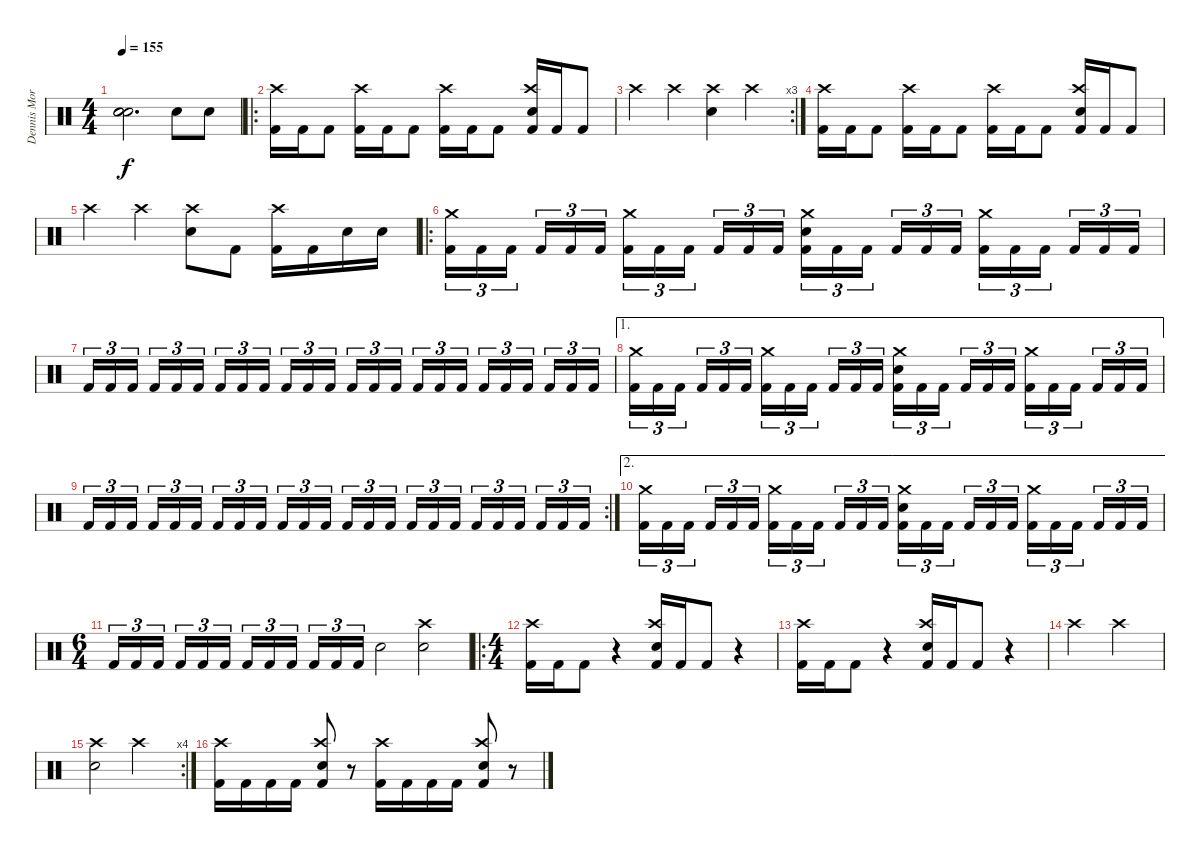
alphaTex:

\track ("Dennis Morgan" "Dennis Mor") {instrument percussion}
\staff {score}
\articulation defaults
\ts (4 4)
\tempo 155
\clef neutral
\ks c
("Snare (hit)"{t} "Snare (hit)"{t} "Snare (hit)"{t}).2{d dy f} "Electric Snare (hit)".8 "Electric Snare (hit)".8 |
\ro
("Crash high (hit)" "Kick (hit) 2").16 "Kick (hit) 2".16 "Kick (hit) 2".8 ("Crash high (hit)" "Kick (hit) 2").16 "Kick (hit) 2".16 "Kick (hit) 2".8 ("Crash high (hit)" "Kick (hit) 2").16 "Kick (hit) 2".16 "Kick (hit) 2".8 ("Crash high (hit)" "Electric Snare (hit)" "Kick (hit) 2").16 "Kick (hit) 2".16 "Kick (hit) 2".8 |
\rc 3 "Crash high (hit)".4 "Crash high (hit)".4
("Crash high (hit)" "Electric Snare (hit)").4 "Crash high (hit)".4 |
("Crash high (hit)" "Kick (hit) 2").16 "Kick (hit) 2".16 "Kick (hit) 2".8 ("Crash high (hit)" "Kick (hit) 2").16 "Kick (hit) 2".16 "Kick (hit) 2".8 ("Crash high (hit)" "Kick (hit) 2").16 "Kick (hit) 2".16 "Kick (hit) 2".8 ("Crash high (hit)" "Electric Snare (hit)" "Kick (hit) 2").16 "Kick (hit) 2".16 "Kick (hit) 2".8 |
"Crash high (hit)".4 "Crash high (hit)".4 ("Crash high (hit)" "Electric Snare (hit)").8 "Kick (hit) 2".8 ("Crash high (hit)" "Kick (hit) 2").16 "Kick (hit) 2".16 "Electric Snare (hit)".16 "Electric Snare (hit)".16 |
\ro
("Crash medium (hit)" "Kick (hit) 2").16{tu (3 2)} "Kick (hit) 2".16{tu (3 2)} "Kick (hit) 2".16{tu (3 2) beam splitsecondary} "Kick (hit) 2".16{tu (3 2)} "Kick (hit) 2".16{tu (3 2)} "Kick (hit) 2".16{tu (3 2)} ("Crash medium (hit)" "Kick (hit) 2").16{tu (3 2)} "Kick (hit) 2".16{tu (3 2)} "Kick (hit) 2".16{tu (3 2) beam splitsecondary} "Kick (hit) 2".16{tu (3 2)} "Kick (hit) 2".16{tu (3 2)} "Kick (hit) 2".16{tu (3 2)} ("Crash medium (hit)" "Electric Snare (hit)" "Kick (hit) 2").16{tu (3 2)} "Kick (hit) 2".16{tu (3 2)} "Kick (hit) 2".16{tu (3 2) beam splitsecondary} "Kick (hit) 2".16{tu (3 2)} "Kick (hit) 2".16{tu (3 2)} "Kick (hit) 2".16{tu (3 2)} ("Crash medium (hit)" "Kick (hit) 2").16{tu (3 2)} "Kick (hit) 2".16{tu (3 2)} "Kick (hit) 2".16{tu (3 2) beam splitsecondary} "Kick (hit) 2".16{tu (3 2)} "Kick (hit) 2".16{tu (3 2)} "Kick (hit) 2".16{tu (3 2)} |
"Kick (hit) 2".16{tu (3 2)} "Kick (hit) 2".16{tu (3 2)} "Kick (hit) 2".16{tu (3 2) beam splitsecondary} "Kick (hit) 2".16{tu (3 2)} "Kick (hit) 2".16{tu (3 2)} "Kick (hit) 2".16{tu (3 2)} "Kick (hit) 2".16{tu (3 2)} "Kick (hit) 2".16{tu (3 2)} "Kick (hit) 2".16{tu (3 2) beam splitsecondary} "Kick (hit) 2".16{tu (3 2)} "Kick (hit) 2".16{tu (3 2)} "Kick (hit) 2".16{tu (3 2)} "Kick (hit) 2".16{tu (3 2)} "Kick (hit) 2".16{tu (3 2)} "Kick (hit) 2".16{tu (3 2) beam splitsecondary} "Kick (hit) 2".16{tu (3 2)} "Kick (hit) 2".16{tu (3 2)} "Kick (hit) 2".16{tu (3 2)} "Kick (hit) 2".16{tu (3 2)} "Kick (hit) 2".16{tu (3 2)} "Kick (hit) 2".16{tu (3 2) beam splitsecondary} "Kick (hit) 2".16{tu (3 2)} "Kick (hit) 2".16{tu (3 2)} "Kick (hit) 2".16{tu (3 2)} |
\ae 1
("Crash medium (hit)" "Kick (hit) 2").16{tu (3 2)} "Kick (hit) 2".16{tu (3 2)} "Kick (hit) 2".16{tu (3 2) beam splitsecondary} "Kick (hit) 2".16{tu (3 2)} "Kick (hit) 2".16{tu (3 2)} "Kick (hit) 2".16{tu (3 2)} ("Crash medium (hit)" "Kick (hit) 2").16{tu (3 2)} "Kick (hit) 2".16{tu (3 2)} "Kick (hit) 2".16{tu (3 2) beam splitsecondary} "Kick (hit) 2".16{tu (3 2)} "Kick (hit) 2".16{tu (3 2)} "Kick (hit) 2".16{tu (3 2)} ("Crash medium (hit)" "Electric Snare (hit)" "Kick (hit) 2").16{tu (3 2)} "Kick (hit) 2".16{tu (3 2)} "Kick (hit) 2".16{tu (3 2) beam splitsecondary} "Kick (hit) 2".16{tu (3 2)} "Kick (hit) 2".16{tu (3 2)} "Kick (hit) 2".16{tu (3 2)} ("Crash medium (hit)" "Kick (hit) 2").16{tu (3 2)} "Kick (hit) 2".16{tu (3 2)} "Kick (hit) 2".16{tu (3 2) beam splitsecondary} "Kick (hit) 2".16{tu (3 2)} "Kick (hit) 2".16{tu (3 2)} "Kick (hit) 2".16{tu (3 2)} |
\rc 2 "Kick (hit) 2".16{tu (3 2)} "Kick (hit) 2".16{tu (3 2)} "Kick (hit) 2".16{tu (3 2) beam splitsecondary} "Kick (hit) 2".16{tu (3 2)} "Kick (hit) 2".16{tu (3 2)} "Kick (hit) 2".16{tu (3 2)} "Kick (hit) 2".16{tu (3 2)} "Kick (hit) 2".16{tu (3 2)} "Kick (hit) 2".16{tu (3 2) beam splitsecondary} "Kick (hit) 2".16{tu (3 2)} "Kick (hit) 2".16{tu (3 2)} "Kick (hit) 2".16{tu (3 2)} "Kick (hit) 2".16{tu (3 2)} "Kick (hit) 2".16{tu (3 2)} "Kick (hit) 2".16{tu (3 2) beam splitsecondary} "Kick (hit) 2".16{tu (3 2)} "Kick (hit) 2".16{tu (3 2)} "Kick (hit) 2".16{tu (3 2)} "Kick (hit) 2".16{tu (3 2)} "Kick (hit) 2".16{tu (3 2)} "Kick (hit) 2".16{tu (3 2) beam splitsecondary} "Kick (hit) 2".16{tu (3 2)} "Kick (hit) 2".16{tu (3 2)} "Kick (hit) 2".16{tu (3 2)}
|
\ae 2
("Crash medium (hit)" "Kick (hit) 2").16{tu (3 2)} "Kick (hit) 2".16{tu (3 2)} "Kick (hit) 2".16{tu (3 2) beam splitsecondary} "Kick (hit) 2".16{tu (3 2)} "Kick (hit) 2".16{tu (3 2)} "Kick (hit) 2".16{tu (3 2)} ("Crash medium (hit)" "Kick (hit) 2").16{tu (3 2)} "Kick (hit) 2".16{tu (3 2)} "Kick (hit) 2".16{tu (3 2) beam splitsecondary} "Kick (hit) 2".16{tu (3 2)} "Kick (hit) 2".16{tu (3 2)} "Kick (hit) 2".16{tu (3 2)} ("Crash medium (hit)" "Electric Snare (hit)" "Kick (hit) 2").16{tu (3 2)} "Kick (hit) 2".16{tu (3 2)} "Kick (hit) 2".16{tu (3 2) beam splitsecondary} "Kick (hit) 2".16{tu (3 2)} "Kick (hit) 2".16{tu (3 2)} "Kick (hit) 2".16{tu (3 2)} ("Crash medium (hit)" "Kick (hit) 2").16{tu (3 2)} "Kick (hit) 2".16{tu (3 2)} "Kick (hit) 2".16{tu (3 2) beam splitsecondary} "Kick (hit) 2".16{tu (3 2)} "Kick (hit) 2".16{tu (3 2)} "Kick (hit) 2".16{tu (3 2)} |
\ts (6 4)
"Kick (hit) 2".16{tu (3 2)} "Kick (hit) 2".16{tu (3 2)} "Kick (hit) 2".16{tu (3 2) beam splitsecondary} "Kick (hit) 2".16{tu (3 2)} "Kick (hit) 2".16{tu (3 2)} "Kick (hit) 2".16{tu (3 2) beam splitsecondary} "Kick (hit) 2".16{tu (3 2)} "Kick (hit) 2".16{tu (3 2)} "Kick (hit) 2".16{tu (3 2) beam splitsecondary} "Kick (hit) 2".16{tu (3 2)} "Kick (hit) 2".16{tu (3 2)} "Kick (hit) 2".16{tu (3 2)} "Electric Snare (hit)".2 ("Crash high (hit)" "Electric Snare (hit)").2 |
\ro
\ts (4 4)
("Crash high (hit)" "Kick (hit) 2").16 "Kick (hit) 2".16 "Kick (hit) 2".8 r.4 ("Crash high (hit)" "Electric Snare (hit)" "Kick (hit) 2").16 "Kick (hit) 2".16 "Kick (hit) 2".8 r.4 |
("Crash high (hit)" "Kick (hit) 2").16 "Kick (hit) 2".16 "Kick (hit) 2".8 r.4 ("Crash high (hit)" "Electric Snare (hit)" "Kick (hit) 2").16 "Kick (hit) 2".16 "Kick (hit) 2".8 r.4 |
"Crash high (hit)".2 "Crash high (hit)".2 |
\rc 4
("Crash high (hit)" "Electric Snare (hit)").2 "Crash high (hit)".2 |
("Crash high (hit)" "Kick (hit) 2").16 "Kick (hit) 2".16 "Kick (hit) 2".16 "Kick (hit) 2".16 ("Crash high (hit)" "Electric Snare (hit)" "Kick (hit) 2").8 r.8 ("Crash high (hit)" "Kick (hit) 2").16 "Kick (hit) 2".16 "Kick (hit) 2".16 "Kick (hit) 2".16 ("Crash high (hit)" "Electric Snare (hit)" "Kick (hit) 2").8 r.8
